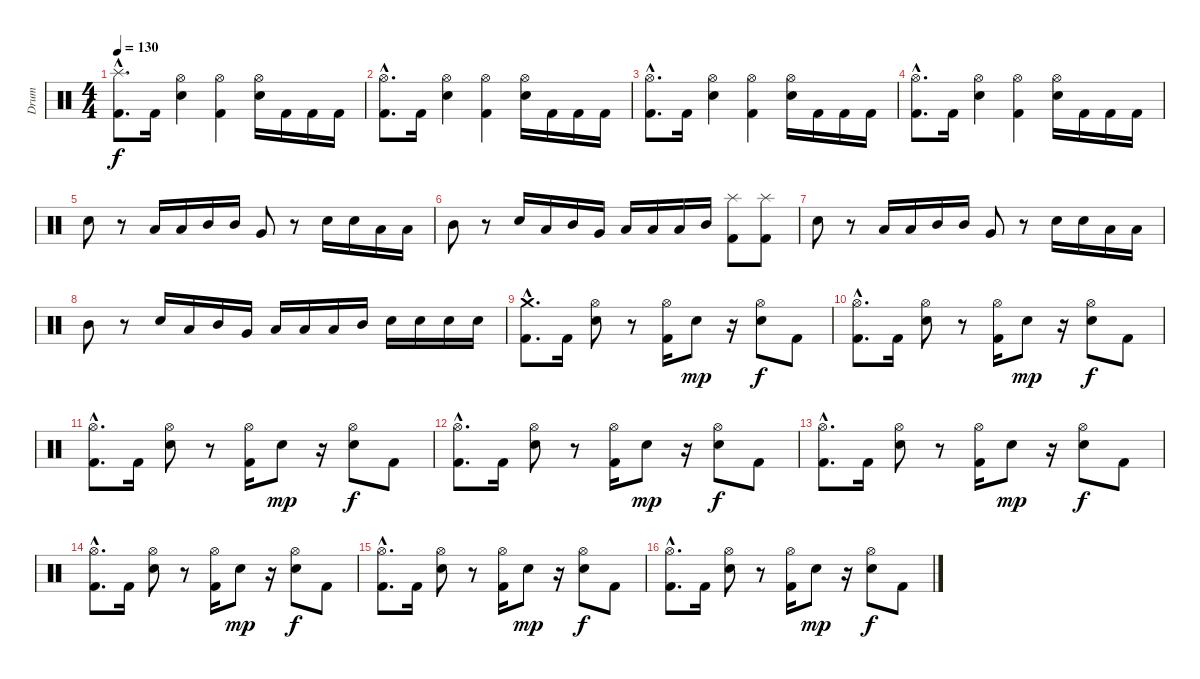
\track ("Drum" "Drum") {instrument percussion}
\staff {score}
\articulation defaults
\ts (4 4)
\tempo 130
\clef neutral
\ks c
("Splash (hit)"{hac} "Kick (hit) 2"{hac}).8{d dy f} "Kick (hit) 2".16 ("Hi-Hat (open)" "Electric Snare (hit)").4 ("Hi-Hat (open)" "Kick (hit) 2").4 ("Hi-Hat (open)" "Electric Snare (hit)").16 "Kick (hit) 2".16 "Kick (hit) 2".16 "Kick (hit) 2".16 |
("Hi-Hat (open)"{hac} "Kick (hit) 2"{hac}).8{d} "Kick (hit) 2".16 ("Hi-Hat (open)" "Electric Snare (hit)").4 ("Hi-Hat (open)" "Kick (hit) 2").4 ("Hi-Hat (open)" "Electric Snare (hit)").16 "Kick (hit) 2".16 "Kick (hit) 2".16 "Kick (hit) 2".16 |
("Hi-Hat (open)"{hac} "Kick (hit) 2"{hac}).8{d} "Kick (hit) 2".16 ("Hi-Hat (open)" "Electric Snare (hit)").4 ("Hi-Hat (open)" "Kick (hit) 2").4 ("Hi-Hat (open)" "Electric Snare (hit)").16 "Kick (hit) 2".16 "Kick (hit) 2".16 "Kick (hit) 2".16 |
("Hi-Hat (open)"{hac} "Kick (hit) 2"{hac}).8{d} "Kick (hit) 2".16 ("Hi-Hat (open)" "Electric Snare (hit)").4 ("Hi-Hat (open)" "Kick (hit) 2").4 ("Hi-Hat (open)" "Electric Snare (hit)").16 "Kick (hit) 2".16 "Kick (hit) 2".16 "Kick (hit) 2".16 |
"Electric Snare (hit)".8 r.8 "Low Tom (hit)".16 "Low Tom (hit)".16 "Mid Tom (hit)".16 "Mid Tom (hit)".16 "Very Low Tom (hit)".8 r.8 "Electric Snare (hit)".16 "Electric Snare (hit)".16 "Low Tom (hit)".16 "Low Tom (hit)".16 |
"Mid Tom (hit)".8 r.8 "Electric Snare (hit)".16 "Low Tom (hit)".16 "Mid Tom (hit)".16 "Very Low Tom (hit)".16 "Low Tom (hit)".16 "Low Tom (hit)".16 "Low Tom (hit)".16 "Mid Tom (hit)".16 ("Splash (hit)" "Kick (hit) 2").8 ("Splash (hit)" "Kick (hit) 2").8 |
"Electric Snare (hit)".8 r.8 "Low Tom (hit)".16 "Low Tom (hit)".16 "Mid Tom (hit)".16 "Mid Tom (hit)".16 "Very Low Tom (hit)".8 r.8 "Electric Snare (hit)".16 "Electric Snare (hit)".16 "Low Tom (hit)".16 "Low Tom (hit)".16 |
"Mid Tom (hit)".8 r.8 "Electric Snare (hit)".16 "Low Tom (hit)".16 "Mid Tom (hit)".16 "Very Low Tom (hit)".16 "Low Tom (hit)".16 "Low Tom (hit)".16 "Low Tom (hit)".16 "Mid Tom (hit)".16 "Electric Snare (hit)".16 "Electric Snare (hit)".16 "Electric Snare (hit)".16 "Electric Snare (hit)".16 |
("Crash medium (hit)"{hac} "Kick (hit) 2"{hac}).8{d} "Kick (hit) 2".16 ("Hi-Hat (open)" "Electric Snare (hit)").8 r.8 ("Hi-Hat (open)" "Kick (hit) 2").16 "Electric Snare (hit)".8{dy mp} r.16 ("Hi-Hat (open)" "Electric Snare (hit)").8{dy f} "Kick (hit) 2".8 |
("Hi-Hat (open)"{hac} "Kick (hit) 2"{hac}).8{d} "Kick (hit) 2".16 ("Hi-Hat (open)" "Electric Snare (hit)").8 r.8 ("Hi-Hat (open)" "Kick (hit) 2").16 "Electric Snare (hit)".8{dy mp} r.16 ("Hi-Hat (open)" "Electric Snare (hit)").8{dy f} "Kick (hit) 2".8 |
("Hi-Hat (open)"{hac} "Kick (hit) 2"{hac}).8{d} "Kick (hit) 2".16 ("Hi-Hat (open)" "Electric Snare (hit)").8 r.8 ("Hi-Hat (open)" "Kick (hit) 2").16 "Electric Snare (hit)".8{dy mp} r.16 ("Hi-Hat (open)" "Electric Snare (hit)").8{dy f} "Kick (hit) 2".8 |
("Hi-Hat (open)"{hac} "Kick (hit) 2"{hac}).8{d} "Kick (hit) 2".16 ("Hi-Hat (open)" "Electric Snare (hit)").8 r.8 ("Hi-Hat (open)" "Kick (hit) 2").16 "Electric Snare (hit)".8{dy mp} r.16 ("Hi-Hat (open)" "Electric Snare (hit)").8{dy f} "Kick (hit) 2".8 |
("Hi-Hat (open)"{hac} "Kick (hit) 2"{hac}).8{d} "Kick (hit) 2".16 ("Hi-Hat (open)" "Electric Snare (hit)").8 r.8 ("Hi-Hat (open)" "Kick (hit) 2").16 "Electric Snare (hit)".8{dy mp} r.16 ("Hi-Hat (open)" "Electric Snare (hit)").8{dy f} "Kick (hit) 2".8 |
("Hi-Hat (open)"{hac} "Kick (hit) 2"{hac}).8{d} "Kick (hit) 2".16 ("Hi-Hat (open)" "Electric Snare (hit)").8 r.8 ("Hi-Hat (open)" "Kick (hit) 2").16 "Electric Snare (hit)".8{dy mp} r.16 ("Hi-Hat (open)" "Electric Snare (hit)").8{dy f} "Kick (hit) 2".8 |
("Hi-Hat (open)"{hac} "Kick (hit) 2"{hac}).8{d} "Kick (hit) 2".16 ("Hi-Hat (open)" "Electric Snare (hit)").8 r.8 ("Hi-Hat (open)" "Kick (hit) 2").16 "Electric Snare (hit)".8{dy mp} r.16 ("Hi-Hat (open)" "Electric Snare (hit)").8{dy f} "Kick (hit) 2".8 |
("Hi-Hat (open)"{hac} "Kick (hit) 2"{hac}).8{d} "Kick (hit) 2".16 ("Hi-Hat (open)" "Electric Snare (hit)").8 r.8 ("Hi-Hat (open)" "Kick (hit) 2").16 "Electric Snare (hit)".8{dy mp} r.16 ("Hi-Hat (open)" "Electric Snare (hit)").8{dy f} "Kick (hit) 2".8
